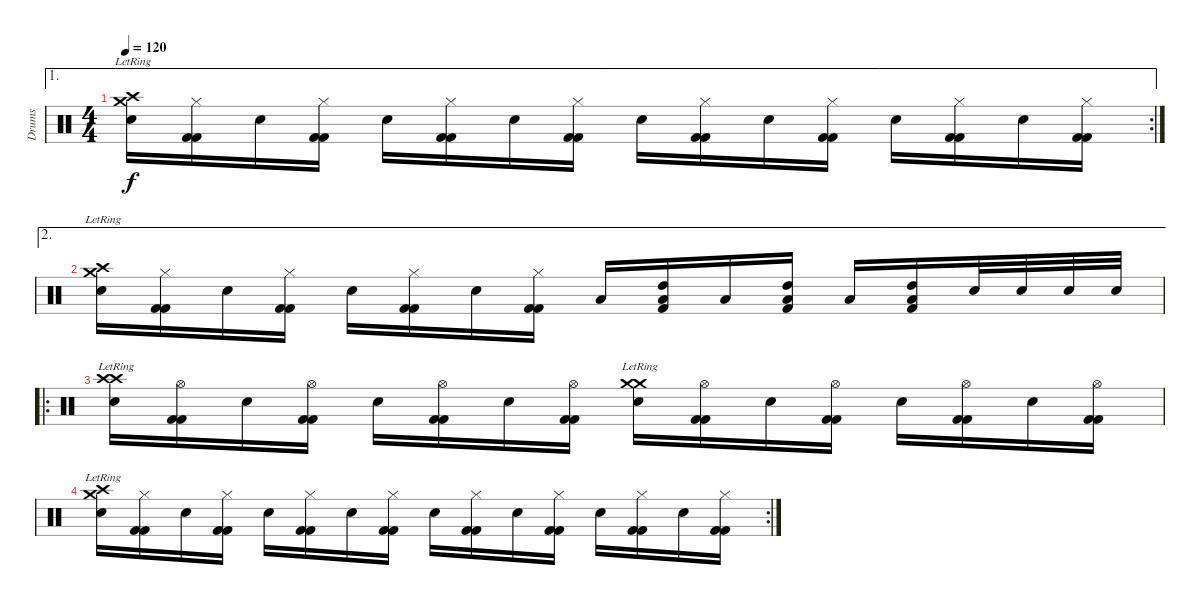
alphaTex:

\track ("Drums" "Drums") {instrument percussion}
\staff {score}
\articulation defaults
\ae 1
\rc 2
\ts (4 4)
\tempo 120
\clef neutral
\ks c
("Crash medium (hit)"{lr} "Crash high (hit)"{lr} "Electric Snare (hit)").16{dy f} ("Hi-Hat (closed)" "Kick (hit) 2" "Kick (hit) 2").16 "Electric Snare (hit)".16 ("Hi-Hat (closed)" "Kick (hit) 2" "Kick (hit) 2").16 "Electric Snare (hit)".16 ("Hi-Hat (closed)" "Kick (hit) 2" "Kick (hit) 2").16 "Electric Snare (hit)".16 ("Hi-Hat (closed)" "Kick (hit) 2" "Kick (hit) 2").16 "Electric Snare (hit)".16 ("Hi-Hat (closed)" "Kick (hit) 2" "Kick (hit) 2").16 "Electric Snare (hit)".16 ("Hi-Hat (closed)" "Kick (hit) 2" "Kick (hit) 2").16 "Electric Snare (hit)".16 ("Hi-Hat (closed)" "Kick (hit) 2" "Kick (hit) 2").16 "Electric Snare (hit)".16 ("Hi-Hat (closed)" "Kick (hit) 2" "Kick (hit) 2").16 |
\ae 2
("Crash medium (hit)"{lr} "Crash high (hit)"{lr} "Electric Snare (hit)").16 ("Hi-Hat (closed)" "Kick (hit) 2" "Kick (hit) 2").16 "Electric Snare (hit)".16 ("Hi-Hat (closed)" "Kick (hit) 2" "Kick (hit) 2").16 "Electric Snare (hit)".16 ("Hi-Hat (closed)" "Kick (hit) 2" "Kick (hit) 2").16 "Electric Snare (hit)".16 ("Hi-Hat (closed)" "Kick (hit) 2" "Kick (hit) 2").16 "Low Tom (hit)".16 ("Low Tom (hit)" "High Tom (hit)" "Kick (hit) 2").16 "Low Floor Tom (hit)".16 ("Low Floor Tom (hit)" "High Tom (hit)" "Kick (hit) 2").16 "Low Tom (hit)".16 ("Low Floor Tom (hit)" "High Tom (hit)" "Kick (hit) 2").16 "Electric Snare (hit)".32 "Electric Snare (hit)".32 "Electric Snare (hit)".32 "Electric Snare (hit)".32 |
\ro
("Crash high (hit)"{lr} "Crash high (hit)"{lr} "Electric Snare (hit)").16 ("Hi-Hat (open)" "Kick (hit) 2" "Kick (hit) 2").16 "Electric Snare (hit)".16 ("Hi-Hat (open)" "Kick (hit) 2" "Kick (hit) 2").16 "Electric Snare (hit)".16 ("Hi-Hat (open)" "Kick (hit) 2" "Kick (hit) 2").16 "Electric Snare (hit)".16 ("Hi-Hat (open)" "Kick (hit) 2" "Kick (hit) 2").16 ("Crash medium (hit)"{lr} "Crash medium (hit)"{lr} "Electric Snare (hit)").16 ("Hi-Hat (open)" "Kick (hit) 2" "Kick (hit) 2").16 "Electric Snare (hit)".16 ("Hi-Hat (open)" "Kick (hit) 2" "Kick (hit) 2").16 "Electric Snare (hit)".16 ("Hi-Hat (open)" "Kick (hit) 2" "Kick (hit) 2").16 "Electric Snare (hit)".16 ("Hi-Hat (open)" "Kick (hit) 2" "Kick (hit) 2").16 |
\rc 2
("Crash medium (hit)"{lr} "Crash high (hit)"{lr} "Electric Snare (hit)").16 ("Hi-Hat (closed)" "Kick (hit) 2" "Kick (hit) 2").16 "Electric Snare (hit)".16 ("Hi-Hat (closed)" "Kick (hit) 2" "Kick (hit) 2").16 "Electric Snare (hit)".16 ("Hi-Hat (closed)" "Kick (hit) 2" "Kick (hit) 2").16 "Electric Snare (hit)".16 ("Hi-Hat (closed)" "Kick (hit) 2" "Kick (hit) 2").16 "Electric Snare (hit)".16 ("Hi-Hat (closed)" "Kick (hit) 2" "Kick (hit) 2").16 "Electric Snare (hit)".16 ("Hi-Hat (closed)" "Kick (hit) 2" "Kick (hit) 2").16 "Electric Snare (hit)".16 ("Hi-Hat (closed)" "Kick (hit) 2" "Kick (hit) 2").16 "Electric Snare (hit)".16 ("Hi-Hat (closed)" "Kick (hit) 2" "Kick (hit) 2").16
